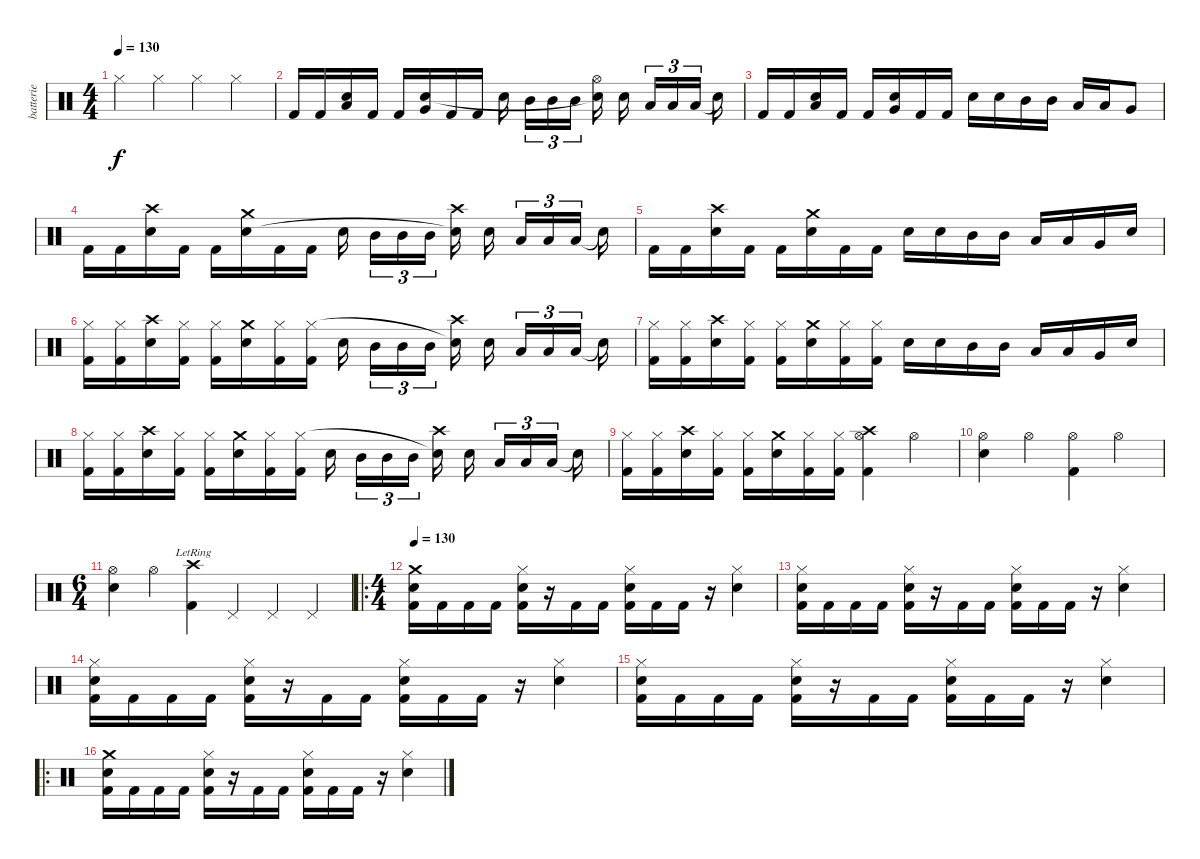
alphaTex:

\track ("batterie" "batterie") {instrument percussion}
\staff {score}
\articulation defaults
\ts (4 4)
\tempo 130
\tempo 105
\tempo 130
\clef neutral
\ks c "Hi-Hat (closed)".4{dy f} "Hi-Hat (closed)".4 "Hi-Hat (closed)".4 "Hi-Hat (closed)".4
|
"Kick (hit) 2".16 "Kick (hit) 2".16 ("Low Tom (hit)" "Snare (hit) 2").16 "Kick (hit) 2".16 "Kick (hit) 2".16 ("Very Low Tom (hit)" "Snare (hit) 2").16 "Kick (hit) 2".16 "Kick (hit) 2".16 "Snare (hit) 2".16 "Mid Tom (hit)".16{tu (3 2)} "Mid Tom (hit)".16{tu (3 2)} "Mid Tom (hit)".16{tu (3 2)} ("Hi-Hat (open)" "Snare (hit)"{t}).16 "Snare (hit) 2".16 "Low Tom (hit)".16{tu (3 2)} "Low Tom (hit)".16{tu (3 2)} "Low Tom (hit)".16{tu (3 2)} "Snare (hit)"{t}.16 |
"Kick (hit) 2".16 "Kick (hit) 2".16 ("Low Tom (hit)" "Snare (hit) 2").16 "Kick (hit) 2".16 "Kick (hit) 2".16 ("Very Low Tom (hit)" "Snare (hit) 2").16 "Kick (hit) 2".16 "Kick (hit) 2".16 "Snare (hit) 2".16 "Snare (hit) 2".16 "Mid Tom (hit)".16 "Mid Tom (hit)".16 "Low Tom (hit)".16 "Low Tom (hit)".16 "Very Low Tom (hit)".8 |
"Kick (hit) 2".16 "Kick (hit) 2".16 ("Crash high (hit)" "Snare (hit) 2").16 "Kick (hit) 2".16 "Kick (hit) 2".16 ("Crash medium (hit)" "Snare (hit) 2").16 "Kick (hit) 2".16 "Kick (hit) 2".16 "Snare (hit) 2".16 "Mid Tom (hit)".16{tu (3 2)} "Mid Tom (hit)".16{tu (3 2)} "Mid Tom (hit)".16{tu (3 2)} ("Crash high (hit)" "Snare (hit)"{t}).16 "Snare (hit) 2".16 "Low Tom (hit)".16{tu (3 2)} "Low Tom (hit)".16{tu (3 2)} "Low Tom (hit)".16{tu (3 2)} "Snare (hit)"{t}.16 |
"Kick (hit) 2".16 "Kick (hit) 2".16 ("Crash high (hit)" "Snare (hit) 2").16 "Kick (hit) 2".16 "Kick (hit) 2".16 ("Crash medium (hit)" "Snare (hit) 2").16 "Kick (hit) 2".16 "Kick (hit) 2".16 "Snare (hit) 2".16 "Snare (hit) 2".16 "Mid Tom (hit)".16 "Mid Tom (hit)".16 "Low Tom (hit)".16 "Low Tom (hit)".16 "Very Low Tom (hit)".16 "Snare (hit) 2".16 |
("Kick (hit) 2" "Hi-Hat (closed)").16 ("Kick (hit) 2" "Hi-Hat (closed)").16 ("Crash high (hit)" "Snare (hit) 2").16 ("Kick (hit) 2" "Hi-Hat (closed)").16 ("Kick (hit) 2" "Hi-Hat (closed)").16 ("Crash medium (hit)" "Snare (hit) 2").16 ("Kick (hit) 2" "Hi-Hat (closed)").16 ("Kick (hit) 2" "Hi-Hat (closed)").16 "Snare (hit) 2".16 "Mid Tom (hit)".16{tu (3 2)} "Mid Tom (hit)".16{tu (3 2)} "Mid Tom (hit)".16{tu (3 2)} ("Crash high (hit)" "Snare (hit)"{t}).16 "Snare (hit) 2".16 "Low Tom (hit)".16{tu (3 2)} "Low Tom (hit)".16{tu (3 2)} "Low Tom (hit)".16{tu (3 2)} "Snare (hit)"{t}.16 |
("Kick (hit) 2" "Hi-Hat (closed)").16 ("Kick (hit) 2" "Hi-Hat (closed)").16 ("Crash high (hit)" "Snare (hit) 2").16 ("Kick (hit) 2" "Hi-Hat (closed)").16 ("Kick (hit) 2" "Hi-Hat (closed)").16 ("Crash medium (hit)" "Snare (hit) 2").16 ("Kick (hit) 2" "Hi-Hat (closed)").16 ("Kick (hit) 2" "Hi-Hat (closed)").16 "Snare (hit) 2".16 "Snare (hit) 2".16 "Mid Tom (hit)".16 "Mid Tom (hit)".16 "Low Tom (hit)".16 "Low Tom (hit)".16 "Very Low Tom (hit)".16 "Snare (hit) 2".16 |
("Kick (hit) 2" "Hi-Hat (closed)").16 ("Kick (hit) 2" "Hi-Hat (closed)").16 ("Crash high (hit)" "Snare (hit) 2").16 ("Kick (hit) 2" "Hi-Hat (closed)").16 ("Kick (hit) 2" "Hi-Hat (closed)").16 ("Crash medium (hit)" "Snare (hit) 2").16 ("Kick (hit) 2" "Hi-Hat (closed)").16 ("Kick (hit) 2" "Hi-Hat (closed)").16 "Snare (hit) 2".16 "Mid Tom (hit)".16{tu (3 2)} "Mid Tom (hit)".16{tu (3 2)} "Mid Tom (hit)".16{tu (3 2)} ("Crash high (hit)" "Snare (hit)"{t}).16 "Snare (hit) 2".16 "Low Tom (hit)".16{tu (3 2)} "Low Tom (hit)".16{tu (3 2)} "Low Tom (hit)".16{tu (3 2)} "Snare (hit)"{t}.16 |
("Kick (hit) 2" "Hi-Hat (closed)").16 ("Kick (hit) 2" "Hi-Hat (closed)").16 ("Crash high (hit)" "Snare (hit) 2").16 ("Kick (hit) 2" "Hi-Hat (closed)").16 ("Kick (hit) 2" "Hi-Hat (closed)").16 ("Crash medium (hit)" "Snare (hit) 2").16 ("Kick (hit) 2" "Hi-Hat (closed)").16 ("Kick (hit) 2" "Hi-Hat (closed)").16 ("Crash high (hit)" "Kick (hit) 2" "Hi-Hat (open)").4 "Hi-Hat (open)".4 |
("Snare (hit) 2" "Hi-Hat (open)").4 "Hi-Hat (open)".4 ("Kick (hit) 2" "Hi-Hat (open)").4 "Hi-Hat (open)".4 |
\ts (6 4)
("Snare (hit) 2" "Hi-Hat (open)").4 "Hi-Hat (open)".4 ("Crash high (hit)"{lr} "Kick (hit) 2").4 "Pedal Hi-Hat (hit)".4 "Pedal Hi-Hat (hit)".4 "Pedal Hi-Hat (hit)".4 |
\ro
\ts (4 4)
\tempo 130
("Crash medium (hit)" "Snare (hit) 2" "Kick (hit) 2").16 "Kick (hit) 2".16 "Kick (hit) 2".16 "Kick (hit) 2".16 ("Snare (hit) 2" "Kick (hit) 2" "Hi-Hat (closed)").16 r.16 "Kick (hit) 2".16 "Kick (hit) 2".16 ("Snare (hit) 2" "Kick (hit) 2" "Hi-Hat (closed)").16 "Kick (hit) 2".16 "Kick (hit) 2".16 r.16 ("Snare (hit) 2" "Hi-Hat (closed)").4 |
("Snare (hit) 2" "Kick (hit) 2" "Hi-Hat (closed)").16 "Kick (hit) 2".16 "Kick (hit) 2".16 "Kick (hit) 2".16 ("Snare (hit) 2" "Kick (hit) 2" "Hi-Hat (closed)").16 r.16 "Kick (hit) 2".16 "Kick (hit) 2".16 ("Snare (hit) 2" "Kick (hit) 2" "Hi-Hat (closed)").16 "Kick (hit) 2".16 "Kick (hit) 2".16 r.16 ("Snare (hit) 2" "Hi-Hat (closed)").4 |
("Snare (hit) 2" "Kick (hit) 2" "Hi-Hat (closed)").16 "Kick (hit) 2".16 "Kick (hit) 2".16 "Kick (hit) 2".16 ("Snare (hit) 2" "Kick (hit) 2" "Hi-Hat (closed)").16 r.16 "Kick (hit) 2".16 "Kick (hit) 2".16 ("Snare (hit) 2" "Kick (hit) 2" "Hi-Hat (closed)").16 "Kick (hit) 2".16 "Kick (hit) 2".16 r.16 ("Snare (hit) 2" "Hi-Hat (closed)").4 |
("Snare (hit) 2" "Kick (hit) 2" "Hi-Hat (closed)").16 "Kick (hit) 2".16 "Kick (hit) 2".16 "Kick (hit) 2".16 ("Snare (hit) 2" "Kick (hit) 2" "Hi-Hat (closed)").16 r.16 "Kick (hit) 2".16 "Kick (hit) 2".16 ("Snare (hit) 2" "Kick (hit) 2" "Hi-Hat (closed)").16 "Kick (hit) 2".16 "Kick (hit) 2".16 r.16 ("Snare (hit) 2" "Hi-Hat (closed)").4 |
\ro
("Crash medium (hit)" "Snare (hit) 2" "Kick (hit) 2").16 "Kick (hit) 2".16 "Kick (hit) 2".16 "Kick (hit) 2".16 ("Snare (hit) 2" "Kick (hit) 2" "Hi-Hat (closed)").16 r.16 "Kick (hit) 2".16 "Kick (hit) 2".16 ("Snare (hit) 2" "Kick (hit) 2" "Hi-Hat (closed)").16 "Kick (hit) 2".16 "Kick (hit) 2".16 r.16 ("Snare (hit) 2" "Hi-Hat (closed)").4
